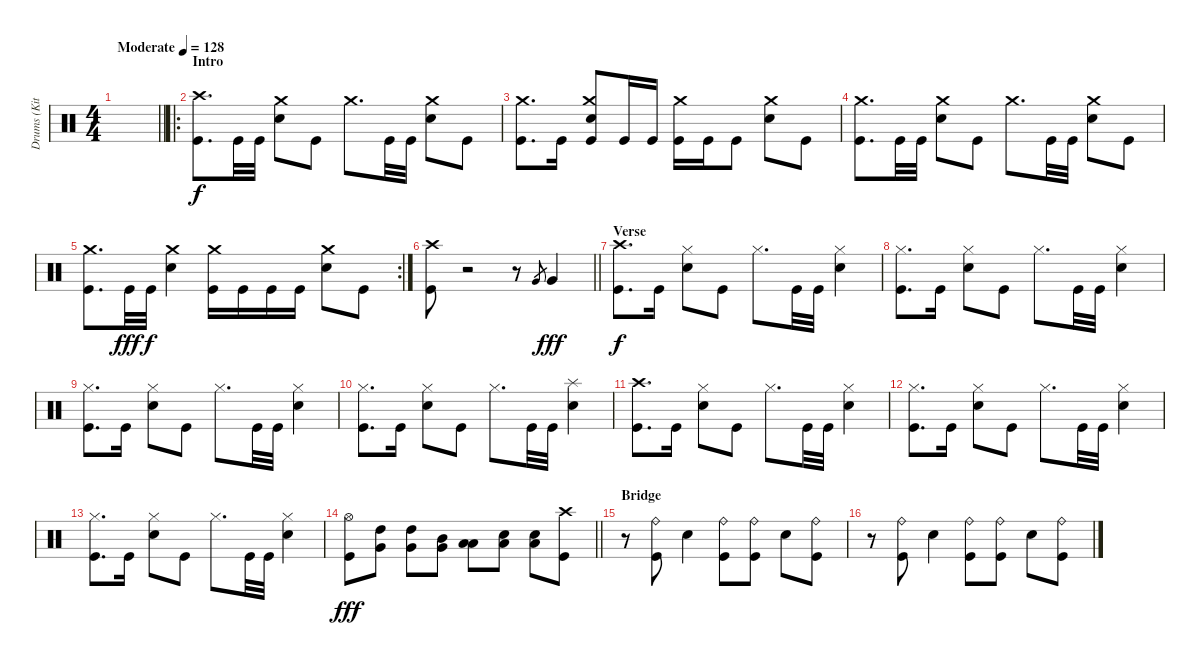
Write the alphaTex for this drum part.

\track ("Drums (Kita)" "Drums (Kit") {instrument percussion}
\staff {score}
\articulation defaults
\ts (4 4)
\tempo (128 "Moderate")
\clef neutral
\barLineRight lightlight
\ks c
|
\ro
\section ("" "Intro")
("Crash high (hit)" "Kick (hit)").8{d} "Kick (hit)".32 "Kick (hit)".32 ("Crash medium (hit)" "Electric Snare (hit)").8 "Kick (hit)".8 "Crash medium (hit)".8{d} "Kick (hit)".32 "Kick (hit)".32 ("Crash medium (hit)" "Electric Snare (hit)").8 "Kick (hit)".8 |
("Crash medium (hit)" "Kick (hit)").8{d} "Kick (hit)".16 ("Crash medium (hit)" "Electric Snare (hit)" "Kick (hit)").8 "Kick (hit)".16 "Kick (hit)".16 ("Crash medium (hit)" "Kick (hit)").16 "Kick (hit)".16 "Kick (hit)".8 ("Crash medium (hit)" "Electric Snare (hit)").8 "Kick (hit)".8 |
("Crash medium (hit)" "Kick (hit)").8{d} "Kick (hit)".32 "Kick (hit)".32 ("Crash medium (hit)" "Electric Snare (hit)").8 "Kick (hit)".8 "Crash medium (hit)".8{d} "Kick (hit)".32 "Kick (hit)".32 ("Crash medium (hit)" "Electric Snare (hit)").8 "Kick (hit)".8 |
\rc 2
("Crash medium (hit)" "Kick (hit)").8{d} "Kick (hit)".32{dy fff} "Kick (hit)".32{dy f} ("Crash medium (hit)" "Electric Snare (hit)").4 ("Crash medium (hit)" "Kick (hit)").16 "Kick (hit)".16 "Kick (hit)".16 "Kick (hit)".16 ("Crash medium (hit)" "Electric Snare (hit)").8 "Kick (hit)".8 |
\barLineRight lightlight
("Crash high (hit)" "Kick (hit)").8 r.2 r.8 "Very Low Tom (hit)".8{gr} "Very Low Tom (hit)".4{dy fff} |
\section ("" "Verse")
("Crash high (hit)" "Kick (hit)").8{d dy f} "Kick (hit)".16 ("Hi-Hat (closed)" "Electric Snare (hit)").8 "Kick (hit)".8 "Hi-Hat (closed)".8{d} "Kick (hit)".32 "Kick (hit)".32 ("Hi-Hat (closed)" "Electric Snare (hit)").4 |
("Hi-Hat (closed)" "Kick (hit)").8{d} "Kick (hit)".16 ("Hi-Hat (closed)" "Electric Snare (hit)").8 "Kick (hit)".8 "Hi-Hat (closed)".8{d} "Kick (hit)".32 "Kick (hit)".32 ("Hi-Hat (closed)" "Electric Snare (hit)").4 |
("Hi-Hat (closed)" "Kick (hit)").8{d} "Kick (hit)".16 ("Hi-Hat (closed)" "Electric Snare (hit)").8 "Kick (hit)".8 "Hi-Hat (closed)".8{d} "Kick (hit)".32 "Kick (hit)".32 ("Hi-Hat (closed)" "Electric Snare (hit)").4 |
("Hi-Hat (closed)" "Kick (hit)").8{d} "Kick (hit)".16 ("Hi-Hat (closed)" "Electric Snare (hit)").8 "Kick (hit)".8 "Hi-Hat (closed)".8{d} "Kick (hit)".32 "Kick (hit)".32 ("Splash (hit)" "Electric Snare (hit)").4 |
("Crash high (hit)" "Kick (hit)").8{d} "Kick (hit)".16 ("Hi-Hat (closed)" "Electric Snare (hit)").8 "Kick (hit)".8 "Hi-Hat (closed)".8{d} "Kick (hit)".32 "Kick (hit)".32 ("Hi-Hat (closed)" "Electric Snare (hit)").4 |
("Hi-Hat (closed)" "Kick (hit)").8{d} "Kick (hit)".16 ("Hi-Hat (closed)" "Electric Snare (hit)").8 "Kick (hit)".8 "Hi-Hat (closed)".8{d} "Kick (hit)".32 "Kick (hit)".32 ("Hi-Hat (closed)" "Electric Snare (hit)").4 |
("Hi-Hat (closed)" "Kick (hit)").8{d} "Kick (hit)".16 ("Hi-Hat (closed)" "Electric Snare (hit)").8 "Kick (hit)".8 "Hi-Hat (closed)".8{d} "Kick (hit)".32 "Kick (hit)".32 ("Hi-Hat (closed)" "Electric Snare (hit)").4 |
\barLineRight lightlight
("Hi-Hat (open)" "Kick (hit)").8{dy fff} ("High Tom (hit)" "Very Low Tom (hit)").8 ("High Tom (hit)" "Very Low Tom (hit)").8 ("Mid Tom (hit)" "Very Low Tom (hit)").8 ("Low Tom (hit)" "Low Floor Tom (hit)").8 ("Electric Snare (hit)" "Low Floor Tom (hit)").8 ("Electric Snare (hit)" "Low Floor Tom (hit)").8 ("Crash high (hit)" "Kick (hit)").8 |
\section ("" "Bridge")
r.8 ("Ride (bell)" "Kick (hit)").8 "Electric Snare (hit)".4 ("Ride (bell)" "Kick (hit)").8 ("Ride (bell)" "Kick (hit)").8 "Electric Snare (hit)".8 ("Ride (bell)" "Kick (hit)").8 |
r.8 ("Ride (bell)" "Kick (hit)").8 "Electric Snare (hit)".4 ("Ride (bell)" "Kick (hit)").8 ("Ride (bell)" "Kick (hit)").8 "Electric Snare (hit)".8 ("Ride (bell)" "Kick (hit)").8
